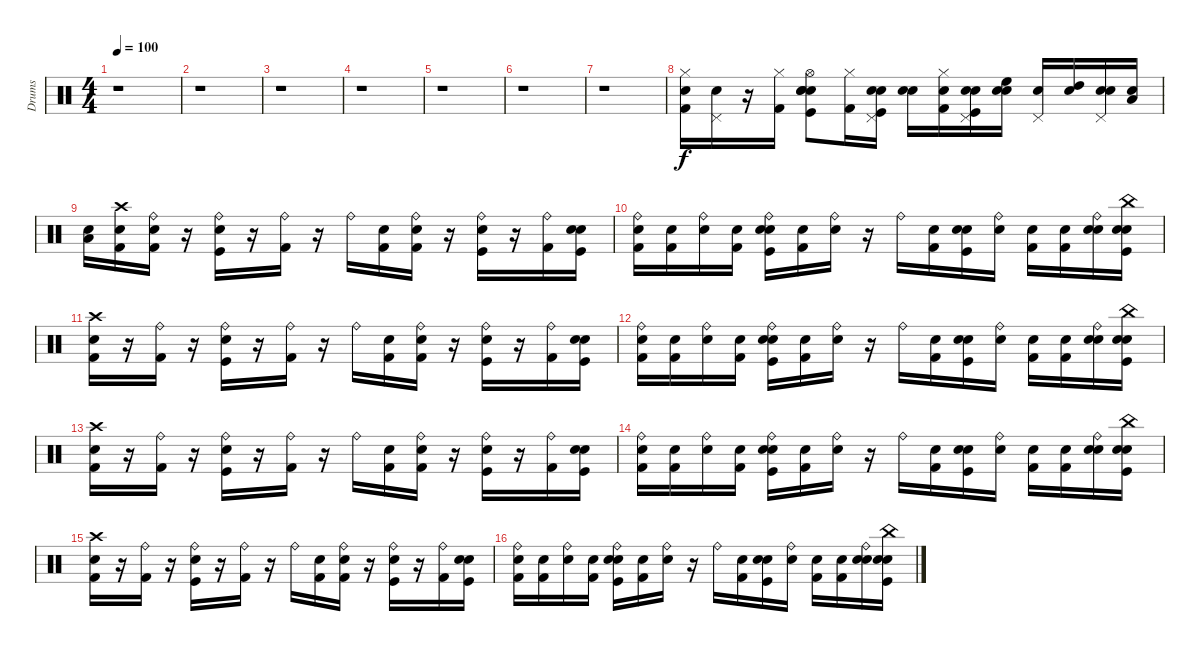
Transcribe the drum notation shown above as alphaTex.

\track ("Drums" "Drums") {instrument percussion}
\staff {score}
\articulation defaults
\ts (4 4)
\tempo 100
\clef neutral
\ks c
r.1{dy f} |
r.1 |
r.1 |
r.1 |
r.1 |
r.1 |
r.1 |
("Snare (hit) 2" "Hi-Hat (closed)" "Kick (hit) 2").16 ("Snare (hit)" "Pedal Hi-Hat (hit)").16 r.16 ("Kick (hit) 2" "Hi-Hat (closed)").16 ("Snare (hit)" "Hi-Hat (open)" "Kick (hit)" "Electric Snare (hit)" "Snare (hit) 2").8 ("Hi-Hat (closed)" "Kick (hit) 2").16 ("Snare (hit)" "Kick (hit)" "Electric Snare (hit)" "Pedal Hi-Hat (hit)").16 ("Snare (hit)" "Snare (hit) 2").16 ("Hi-Hat (closed)" "Kick (hit) 2" "Snare (hit) 2").16 ("Snare (hit)" "Pedal Hi-Hat (hit)" "Kick (hit)" "Electric Snare (hit)").16 ("Snare (hit)" "Snare (hit) 2" "High Floor Tom (hit)").16 ("Snare (hit)" "Pedal Hi-Hat (hit)").16 ("Snare (hit)" "High Tom (hit)").16 ("Snare (hit)" "Snare (hit) 2" "Pedal Hi-Hat (hit)").16 ("Snare (hit)" "Low Tom (hit)").16 |
("Snare (hit)" "Low Floor Tom (hit)").16 ("Snare (hit)" "Kick (hit) 2" "Crash high (hit)").16 ("Snare (hit)" "Ride (bell)" "Kick (hit) 2").16 r.16 ("Ride (bell)" "Kick (hit)" "Electric Snare (hit)").16 r.16 ("Ride (bell)" "Kick (hit) 2").16 r.16 "Ride (bell)".16 ("Snare (hit)" "Kick (hit) 2").16 ("Snare (hit)" "Kick (hit) 2" "Ride (bell)").16 r.16 ("Ride (bell)" "Kick (hit)" "Electric Snare (hit)").16 r.16 ("Ride (bell)" "Kick (hit) 2").16 ("Snare (hit)" "Kick (hit)" "Electric Snare (hit)").16 |
("Snare (hit)" "Kick (hit) 2" "Ride (bell)").16 ("Snare (hit)" "Kick (hit) 2").16 ("Snare (hit)" "Ride (bell)").16 ("Snare (hit)" "Kick (hit) 2").16 ("Snare (hit)" "Ride (bell)" "Kick (hit)" "Electric Snare (hit)").16 ("Snare (hit)" "Kick (hit) 2").16 ("Snare (hit)" "Ride (bell)").16 r.16 "Ride (bell)".16 ("Snare (hit)" "Kick (hit) 2").16 ("Snare (hit)" "Kick (hit)" "Electric Snare (hit)").16 ("Snare (hit)" "Ride (bell)").16 ("Snare (hit)" "Kick (hit) 2").16 ("Snare (hit)" "Kick (hit) 2").16 ("Snare (hit)" "Snare (hit) 2" "Ride (bell)").16 ("Snare (hit)" "Kick (hit)" "Electric Snare (hit)" "China (hit)").16 |
("Snare (hit)" "Kick (hit) 2" "Crash high (hit)").16 r.16 ("Ride (bell)" "Kick (hit) 2").16 r.16 ("Ride (bell)" "Kick (hit)" "Electric Snare (hit)").16 r.16 ("Ride (bell)" "Kick (hit) 2").16 r.16 "Ride (bell)".16 ("Snare (hit)" "Kick (hit) 2").16 ("Snare (hit)" "Kick (hit) 2" "Ride (bell)").16 r.16 ("Ride (bell)" "Kick (hit)" "Electric Snare (hit)").16 r.16 ("Ride (bell)" "Kick (hit) 2").16 ("Snare (hit)" "Kick (hit)" "Electric Snare (hit)").16 |
("Snare (hit)" "Kick (hit) 2" "Ride (bell)").16 ("Snare (hit)" "Kick (hit) 2").16 ("Snare (hit)" "Ride (bell)").16 ("Snare (hit)" "Kick (hit) 2").16 ("Snare (hit)" "Ride (bell)" "Kick (hit)" "Electric Snare (hit)").16 ("Snare (hit)" "Kick (hit) 2").16 ("Snare (hit)" "Ride (bell)").16 r.16 "Ride (bell)".16 ("Snare (hit)" "Kick (hit) 2").16 ("Snare (hit)" "Kick (hit)" "Electric Snare (hit)").16 ("Snare (hit)" "Ride (bell)").16 ("Snare (hit)" "Kick (hit) 2").16 ("Snare (hit)" "Kick (hit) 2").16 ("Snare (hit)" "Snare (hit) 2" "Ride (bell)").16 ("Snare (hit)" "Kick (hit)" "Electric Snare (hit)" "China (hit)").16 |
("Snare (hit)" "Kick (hit) 2" "Crash high (hit)").16 r.16 ("Ride (bell)" "Kick (hit) 2").16 r.16 ("Ride (bell)" "Kick (hit)" "Electric Snare (hit)").16 r.16 ("Ride (bell)" "Kick (hit) 2").16 r.16 "Ride (bell)".16 ("Snare (hit)" "Kick (hit) 2").16 ("Snare (hit)" "Kick (hit) 2" "Ride (bell)").16 r.16 ("Ride (bell)" "Kick (hit)" "Electric Snare (hit)").16 r.16 ("Ride (bell)" "Kick (hit) 2").16 ("Snare (hit)" "Kick (hit)" "Electric Snare (hit)").16 |
("Snare (hit)" "Kick (hit) 2" "Ride (bell)").16 ("Snare (hit)" "Kick (hit) 2").16 ("Snare (hit)" "Ride (bell)").16 ("Snare (hit)" "Kick (hit) 2").16 ("Snare (hit)" "Ride (bell)" "Kick (hit)" "Electric Snare (hit)").16 ("Snare (hit)" "Kick (hit) 2").16 ("Snare (hit)" "Ride (bell)").16 r.16 "Ride (bell)".16 ("Snare (hit)" "Kick (hit) 2").16 ("Snare (hit)" "Kick (hit)" "Electric Snare (hit)").16 ("Snare (hit)" "Ride (bell)").16 ("Snare (hit)" "Kick (hit) 2").16 ("Snare (hit)" "Kick (hit) 2").16 ("Snare (hit)" "Snare (hit) 2" "Ride (bell)").16 ("Snare (hit)" "Kick (hit)" "Electric Snare (hit)" "China (hit)").16 |
("Snare (hit)" "Kick (hit) 2" "Crash high (hit)").16 r.16 ("Ride (bell)" "Kick (hit) 2").16 r.16 ("Ride (bell)" "Kick (hit)" "Electric Snare (hit)").16 r.16 ("Ride (bell)" "Kick (hit) 2").16 r.16 "Ride (bell)".16 ("Snare (hit)" "Kick (hit) 2").16 ("Snare (hit)" "Kick (hit) 2" "Ride (bell)").16 r.16 ("Ride (bell)" "Kick (hit)" "Electric Snare (hit)").16 r.16 ("Ride (bell)" "Kick (hit) 2").16 ("Snare (hit)" "Kick (hit)" "Electric Snare (hit)").16 |
("Snare (hit)" "Kick (hit) 2" "Ride (bell)").16 ("Snare (hit)" "Kick (hit) 2").16 ("Snare (hit)" "Ride (bell)").16 ("Snare (hit)" "Kick (hit) 2").16 ("Snare (hit)" "Ride (bell)" "Kick (hit)" "Electric Snare (hit)").16 ("Snare (hit)" "Kick (hit) 2").16 ("Snare (hit)" "Ride (bell)").16 r.16 "Ride (bell)".16 ("Snare (hit)" "Kick (hit) 2").16 ("Snare (hit)" "Kick (hit)" "Electric Snare (hit)").16 ("Snare (hit)" "Ride (bell)").16 ("Snare (hit)" "Kick (hit) 2").16 ("Snare (hit)" "Kick (hit) 2").16 ("Snare (hit)" "Snare (hit) 2" "Ride (bell)").16 ("Snare (hit)" "Kick (hit)" "Electric Snare (hit)" "China (hit)").16
